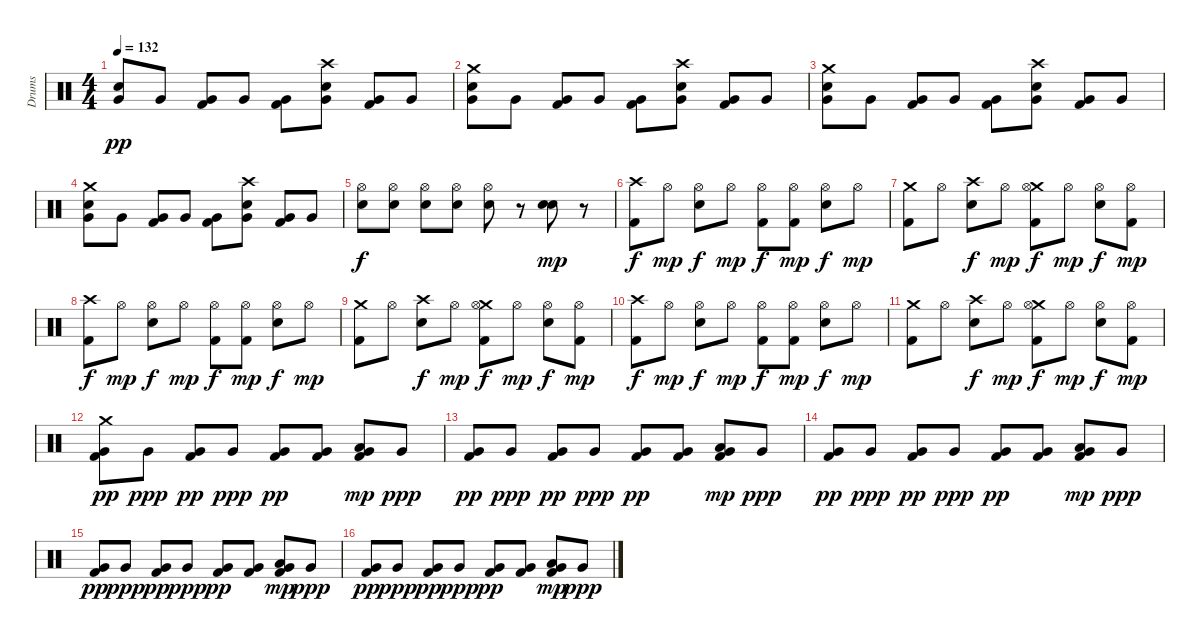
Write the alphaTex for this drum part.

\track ("Drums" "Drums") {instrument percussion}
\staff {score}
\articulation defaults
\ts (4 4)
\tempo 132
\clef neutral
\ks c
("Very Low Tom (hit)" "Electric Snare (hit)").8{dy pp} "Very Low Tom (hit)".8 ("Very Low Tom (hit)" "Kick (hit) 2").8 "Very Low Tom (hit)".8 ("Very Low Tom (hit)" "Kick (hit) 2").8 ("Crash high (hit)" "Very Low Tom (hit)" "Electric Snare (hit)").8 ("Very Low Tom (hit)" "Kick (hit) 2").8 "Very Low Tom (hit)".8 |
("Crash medium (hit)" "Very Low Tom (hit)" "Electric Snare (hit)").8 "Very Low Tom (hit)".8 ("Very Low Tom (hit)" "Kick (hit) 2").8 "Very Low Tom (hit)".8 ("Very Low Tom (hit)" "Kick (hit) 2").8 ("Crash high (hit)" "Very Low Tom (hit)" "Electric Snare (hit)").8 ("Very Low Tom (hit)" "Kick (hit) 2").8 "Very Low Tom (hit)".8 |
("Crash medium (hit)" "Very Low Tom (hit)" "Electric Snare (hit)").8 "Very Low Tom (hit)".8 ("Very Low Tom (hit)" "Kick (hit) 2").8 "Very Low Tom (hit)".8 ("Very Low Tom (hit)" "Kick (hit) 2").8 ("Crash high (hit)" "Very Low Tom (hit)" "Electric Snare (hit)").8 ("Very Low Tom (hit)" "Kick (hit) 2").8 "Very Low Tom (hit)".8 |
("Crash medium (hit)" "Very Low Tom (hit)" "Electric Snare (hit)").8 "Very Low Tom (hit)".8 ("Very Low Tom (hit)" "Kick (hit) 2").8 "Very Low Tom (hit)".8 ("Very Low Tom (hit)" "Kick (hit) 2").8 ("Crash high (hit)" "Very Low Tom (hit)" "Electric Snare (hit)").8 ("Very Low Tom (hit)" "Kick (hit) 2").8 "Very Low Tom (hit)".8 |
("Hi-Hat (open)" "Electric Snare (hit)").8{dy f} ("Hi-Hat (open)" "Electric Snare (hit)").8 ("Hi-Hat (open)" "Electric Snare (hit)").8 ("Hi-Hat (open)" "Electric Snare (hit)").8 ("Hi-Hat (open)" "Electric Snare (hit)").8 r.8 ("Electric Snare (hit)" "Snare (hit) 2").8{dy mp} r.8 |
("Crash high (hit)" "Kick (hit) 2").8{dy f} "Hi-Hat (open)".8{dy mp} ("Hi-Hat (open)" "Electric Snare (hit)").8{dy f} "Hi-Hat (open)".8{dy mp} ("Hi-Hat (open)" "Kick (hit) 2").8{dy f} ("Kick (hit) 2" "Hi-Hat (open)").8{dy mp} ("Hi-Hat (open)" "Electric Snare (hit)").8{dy f} "Hi-Hat (open)".8{dy mp} |
("Crash medium (hit)" "Kick (hit) 2").8 "Hi-Hat (open)".8 ("Crash high (hit)" "Electric Snare (hit)").8{dy f} "Hi-Hat (open)".8{dy mp} ("Crash medium (hit)" "Hi-Hat (open)" "Kick (hit) 2").8{dy f} "Hi-Hat (open)".8{dy mp} ("Hi-Hat (open)" "Electric Snare (hit)").8{dy f} ("Hi-Hat (open)" "Kick (hit) 2").8{dy mp} |
("Crash high (hit)" "Kick (hit) 2").8{dy f} "Hi-Hat (open)".8{dy mp} ("Hi-Hat (open)" "Electric Snare (hit)").8{dy f} "Hi-Hat (open)".8{dy mp} ("Hi-Hat (open)" "Kick (hit) 2").8{dy f} ("Kick (hit) 2" "Hi-Hat (open)").8{dy mp} ("Hi-Hat (open)" "Electric Snare (hit)").8{dy f} "Hi-Hat (open)".8{dy mp} |
("Crash medium (hit)" "Kick (hit) 2").8 "Hi-Hat (open)".8 ("Crash high (hit)" "Electric Snare (hit)").8{dy f} "Hi-Hat (open)".8{dy mp} ("Crash medium (hit)" "Hi-Hat (open)" "Kick (hit) 2").8{dy f} "Hi-Hat (open)".8{dy mp} ("Hi-Hat (open)" "Electric Snare (hit)").8{dy f} ("Hi-Hat (open)" "Kick (hit) 2").8{dy mp} |
("Crash high (hit)" "Kick (hit) 2").8{dy f} "Hi-Hat (open)".8{dy mp} ("Hi-Hat (open)" "Electric Snare (hit)").8{dy f} "Hi-Hat (open)".8{dy mp} ("Hi-Hat (open)" "Kick (hit) 2").8{dy f} ("Kick (hit) 2" "Hi-Hat (open)").8{dy mp} ("Hi-Hat (open)" "Electric Snare (hit)").8{dy f} "Hi-Hat (open)".8{dy mp} |
("Crash medium (hit)" "Kick (hit) 2").8 "Hi-Hat (open)".8 ("Crash high (hit)" "Electric Snare (hit)").8{dy f} "Hi-Hat (open)".8{dy mp} ("Crash medium (hit)" "Hi-Hat (open)" "Kick (hit) 2").8{dy f} "Hi-Hat (open)".8{dy mp} ("Hi-Hat (open)" "Electric Snare (hit)").8{dy f} ("Hi-Hat (open)" "Kick (hit) 2").8{dy mp} |
("Crash medium (hit)" "Kick (hit) 2" "Very Low Tom (hit)").8{dy pp} "Very Low Tom (hit)".8{dy ppp} ("Very Low Tom (hit)" "Kick (hit) 2").8{dy pp} "Very Low Tom (hit)".8{dy ppp} ("Very Low Tom (hit)" "Kick (hit) 2").8{dy pp} ("Kick (hit) 2" "Very Low Tom (hit)").8 ("Low Floor Tom (hit)" "Very Low Tom (hit)" "Kick (hit) 2").8{dy mp} "Very Low Tom (hit)".8{dy ppp} |
("Very Low Tom (hit)" "Kick (hit) 2").8{dy pp} "Very Low Tom (hit)".8{dy ppp} ("Very Low Tom (hit)" "Kick (hit) 2").8{dy pp} "Very Low Tom (hit)".8{dy ppp} ("Very Low Tom (hit)" "Kick (hit) 2").8{dy pp} ("Kick (hit) 2" "Very Low Tom (hit)").8 ("Low Floor Tom (hit)" "Very Low Tom (hit)" "Kick (hit) 2").8{dy mp} "Very Low Tom (hit)".8{dy ppp} |
("Very Low Tom (hit)" "Kick (hit) 2").8{dy pp} "Very Low Tom (hit)".8{dy ppp} ("Very Low Tom (hit)" "Kick (hit) 2").8{dy pp} "Very Low Tom (hit)".8{dy ppp} ("Very Low Tom (hit)" "Kick (hit) 2").8{dy pp} ("Kick (hit) 2" "Very Low Tom (hit)").8 ("Low Floor Tom (hit)" "Very Low Tom (hit)" "Kick (hit) 2").8{dy mp} "Very Low Tom (hit)".8{dy ppp} |
("Very Low Tom (hit)" "Kick (hit) 2").8{dy pp} "Very Low Tom (hit)".8{dy ppp} ("Very Low Tom (hit)" "Kick (hit) 2").8{dy pp} "Very Low Tom (hit)".8{dy ppp} ("Very Low Tom (hit)" "Kick (hit) 2").8{dy pp} ("Kick (hit) 2" "Very Low Tom (hit)").8 ("Low Floor Tom (hit)" "Very Low Tom (hit)" "Kick (hit) 2").8{dy mp} "Very Low Tom (hit)".8{dy ppp} |
("Very Low Tom (hit)" "Kick (hit) 2").8{dy pp} "Very Low Tom (hit)".8{dy ppp} ("Very Low Tom (hit)" "Kick (hit) 2").8{dy pp} "Very Low Tom (hit)".8{dy ppp} ("Very Low Tom (hit)" "Kick (hit) 2").8{dy pp} ("Kick (hit) 2" "Very Low Tom (hit)").8 ("Low Floor Tom (hit)" "Very Low Tom (hit)" "Kick (hit) 2").8{dy mp} "Very Low Tom (hit)".8{dy ppp}
